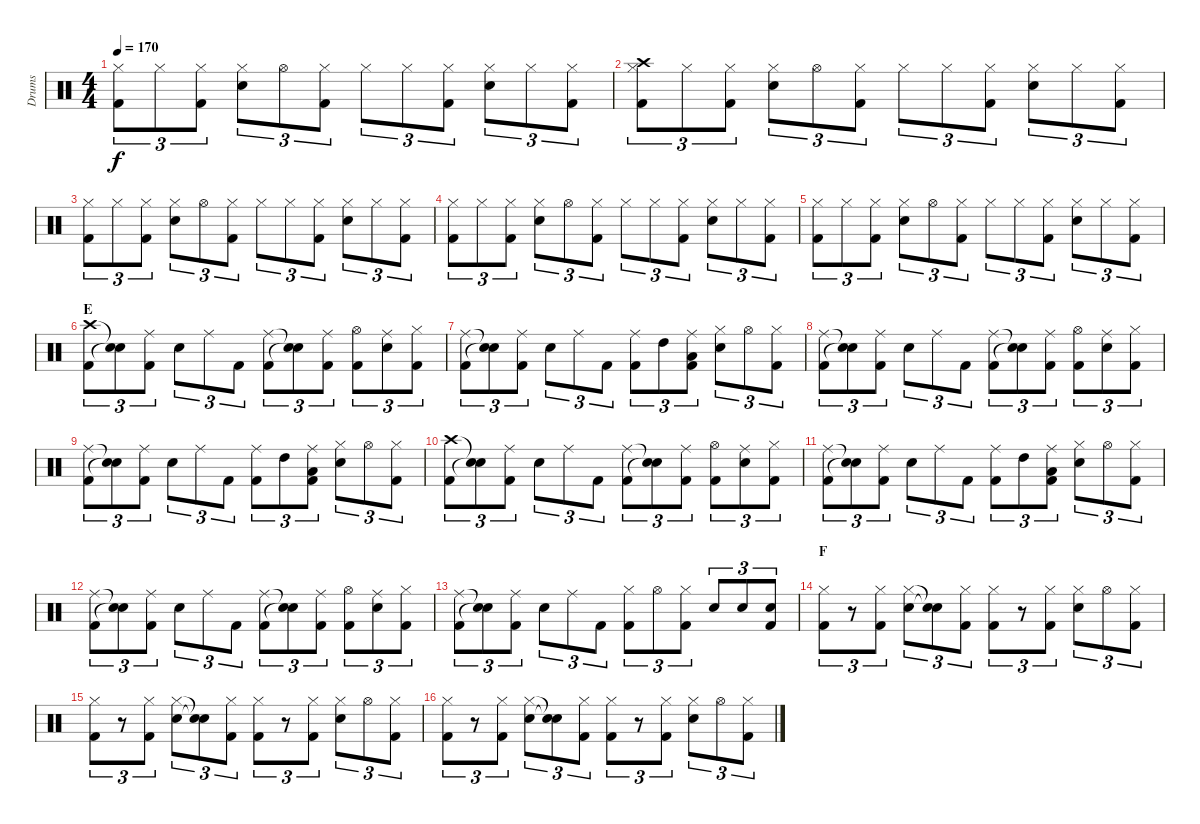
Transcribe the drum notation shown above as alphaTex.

\track ("Drums" "Drums") {instrument percussion}
\staff {score}
\articulation defaults
\ts (4 4)
\tempo 170
\clef neutral
\ks c
("Hi-Hat (closed)" "Kick (hit) 2").8{tu (3 2) dy f} "Hi-Hat (closed)".8{tu (3 2)} ("Hi-Hat (closed)" "Kick (hit) 2").8{tu (3 2)} ("Hi-Hat (closed)" "Snare (hit) 2").8{tu (3 2)} "Hi-Hat (open)".8{tu (3 2)} ("Hi-Hat (closed)" "Kick (hit) 2").8{tu (3 2)} "Hi-Hat (closed)".8{tu (3 2)} "Hi-Hat (closed)".8{tu (3 2)} ("Hi-Hat (closed)" "Kick (hit) 2").8{tu (3 2)} ("Hi-Hat (closed)" "Snare (hit) 2").8{tu (3 2)} "Hi-Hat (closed)".8{tu (3 2)} ("Hi-Hat (closed)" "Kick (hit) 2").8{tu (3 2)} |
("Crash high (hit)" "Hi-Hat (closed)" "Kick (hit) 2").8{tu (3 2)} "Hi-Hat (closed)".8{tu (3 2)} ("Hi-Hat (closed)" "Kick (hit) 2").8{tu (3 2)} ("Hi-Hat (closed)" "Snare (hit) 2").8{tu (3 2)} "Hi-Hat (open)".8{tu (3 2)} ("Hi-Hat (closed)" "Kick (hit) 2").8{tu (3 2)} "Hi-Hat (closed)".8{tu (3 2)} "Hi-Hat (closed)".8{tu (3 2)} ("Hi-Hat (closed)" "Kick (hit) 2").8{tu (3 2)} ("Hi-Hat (closed)" "Snare (hit) 2").8{tu (3 2)} "Hi-Hat (closed)".8{tu (3 2)} ("Hi-Hat (closed)" "Kick (hit) 2").8{tu (3 2)} |
("Hi-Hat (closed)" "Kick (hit) 2").8{tu (3 2)} "Hi-Hat (closed)".8{tu (3 2)} ("Hi-Hat (closed)" "Kick (hit) 2").8{tu (3 2)} ("Hi-Hat (closed)" "Snare (hit) 2").8{tu (3 2)} "Hi-Hat (open)".8{tu (3 2)} ("Hi-Hat (closed)" "Kick (hit) 2").8{tu (3 2)} "Hi-Hat (closed)".8{tu (3 2)} "Hi-Hat (closed)".8{tu (3 2)} ("Hi-Hat (closed)" "Kick (hit) 2").8{tu (3 2)} ("Hi-Hat (closed)" "Snare (hit) 2").8{tu (3 2)} "Hi-Hat (closed)".8{tu (3 2)} ("Hi-Hat (closed)" "Kick (hit) 2").8{tu (3 2)} |
("Hi-Hat (closed)" "Kick (hit) 2").8{tu (3 2)} "Hi-Hat (closed)".8{tu (3 2)} ("Hi-Hat (closed)" "Kick (hit) 2").8{tu (3 2)} ("Hi-Hat (closed)" "Snare (hit) 2").8{tu (3 2)} "Hi-Hat (open)".8{tu (3 2)} ("Hi-Hat (closed)" "Kick (hit) 2").8{tu (3 2)} "Hi-Hat (closed)".8{tu (3 2)} "Hi-Hat (closed)".8{tu (3 2)} ("Hi-Hat (closed)" "Kick (hit) 2").8{tu (3 2)} ("Hi-Hat (closed)" "Snare (hit) 2").8{tu (3 2)} "Hi-Hat (closed)".8{tu (3 2)} ("Hi-Hat (closed)" "Kick (hit) 2").8{tu (3 2)} |
("Hi-Hat (closed)" "Kick (hit) 2").8{tu (3 2)} "Hi-Hat (closed)".8{tu (3 2)} ("Hi-Hat (closed)" "Kick (hit) 2").8{tu (3 2)} ("Hi-Hat (closed)" "Snare (hit) 2").8{tu (3 2)} "Hi-Hat (open)".8{tu (3 2)} ("Hi-Hat (closed)" "Kick (hit) 2").8{tu (3 2)} "Hi-Hat (closed)".8{tu (3 2)} "Hi-Hat (closed)".8{tu (3 2)} ("Hi-Hat (closed)" "Kick (hit) 2").8{tu (3 2)} ("Hi-Hat (closed)" "Snare (hit) 2").8{tu (3 2)} "Hi-Hat (closed)".8{tu (3 2)} ("Hi-Hat (closed)" "Kick (hit) 2").8{tu (3 2)} |
\section ("" "E")
("Crash high (hit)" "Kick (hit) 2").8{tu (3 2)} ("Snare (hit)"{t} "Snare (hit)"{t}).8{tu (3 2)} ("Ride (middle)" "Kick (hit) 2").8{tu (3 2)} "Snare (hit) 2".8{tu (3 2)} "Ride (middle)".8{tu (3 2)} "Kick (hit) 2".8{tu (3 2)} ("Ride (middle)" "Kick (hit) 2").8{tu (3 2)} ("Snare (hit)"{t} "Snare (hit)"{t}).8{tu (3 2)} ("Ride (middle)" "Kick (hit) 2").8{tu (3 2)} ("Hi-Hat (open)" "Kick (hit) 2").8{tu (3 2)} ("Ride (middle)" "Snare (hit) 2").8{tu (3 2)} ("Hi-Hat (closed)" "Kick (hit) 2").8{tu (3 2)} |
("Ride (middle)" "Kick (hit) 2").8{tu (3 2)} ("Snare (hit)"{t} "Snare (hit)"{t}).8{tu (3 2)} ("Ride (middle)" "Kick (hit) 2").8{tu (3 2)} "Snare (hit) 2".8{tu (3 2)} "Ride (middle)".8{tu (3 2)} "Kick (hit) 2".8{tu (3 2)} ("Ride (middle)" "Kick (hit) 2").8{tu (3 2)} "High Tom (hit)".8{tu (3 2)} ("Ride (middle)" "Low Tom (hit)" "Kick (hit) 2").8{tu (3 2)} ("Hi-Hat (closed)" "Snare (hit) 2").8{tu (3 2)} "Hi-Hat (open)".8{tu (3 2)} ("Hi-Hat (closed)" "Kick (hit) 2").8{tu (3 2)} |
("Ride (middle)" "Kick (hit) 2").8{tu (3 2)} ("Snare (hit)"{t} "Snare (hit)"{t}).8{tu (3 2)} ("Ride (middle)" "Kick (hit) 2").8{tu (3 2)} "Snare (hit) 2".8{tu (3 2)} "Ride (middle)".8{tu (3 2)} "Kick (hit) 2".8{tu (3 2)} ("Ride (middle)" "Kick (hit) 2").8{tu (3 2)} ("Snare (hit)"{t} "Snare (hit)"{t}).8{tu (3 2)} ("Ride (middle)" "Kick (hit) 2").8{tu (3 2)} ("Hi-Hat (open)" "Kick (hit) 2").8{tu (3 2)} ("Ride (middle)" "Snare (hit) 2").8{tu (3 2)} ("Hi-Hat (closed)" "Kick (hit) 2").8{tu (3 2)} |
("Ride (middle)" "Kick (hit) 2").8{tu (3 2)} ("Snare (hit)"{t} "Snare (hit)"{t}).8{tu (3 2)} ("Ride (middle)" "Kick (hit) 2").8{tu (3 2)} "Snare (hit) 2".8{tu (3 2)} "Ride (middle)".8{tu (3 2)} "Kick (hit) 2".8{tu (3 2)} ("Ride (middle)" "Kick (hit) 2").8{tu (3 2)} "High Tom (hit)".8{tu (3 2)} ("Ride (middle)" "Low Tom (hit)" "Kick (hit) 2").8{tu (3 2)} ("Hi-Hat (closed)" "Snare (hit) 2").8{tu (3 2)} "Hi-Hat (open)".8{tu (3 2)} ("Hi-Hat (closed)" "Kick (hit) 2").8{tu (3 2)} |
("Crash high (hit)" "Kick (hit) 2").8{tu (3 2)} ("Snare (hit)"{t} "Snare (hit)"{t}).8{tu (3 2)} ("Ride (middle)" "Kick (hit) 2").8{tu (3 2)} "Snare (hit) 2".8{tu (3 2)} "Ride (middle)".8{tu (3 2)} "Kick (hit) 2".8{tu (3 2)} ("Ride (middle)" "Kick (hit) 2").8{tu (3 2)} ("Snare (hit)"{t} "Snare (hit)"{t}).8{tu (3 2)} ("Ride (middle)" "Kick (hit) 2").8{tu (3 2)} ("Hi-Hat (open)" "Kick (hit) 2").8{tu (3 2)} ("Ride (middle)" "Snare (hit) 2").8{tu (3 2)} ("Hi-Hat (closed)" "Kick (hit) 2").8{tu (3 2)} |
("Ride (middle)" "Kick (hit) 2").8{tu (3 2)} ("Snare (hit)"{t} "Snare (hit)"{t}).8{tu (3 2)} ("Ride (middle)" "Kick (hit) 2").8{tu (3 2)} "Snare (hit) 2".8{tu (3 2)} "Ride (middle)".8{tu (3 2)} "Kick (hit) 2".8{tu (3 2)} ("Ride (middle)" "Kick (hit) 2").8{tu (3 2)} "High Tom (hit)".8{tu (3 2)} ("Ride (middle)" "Low Tom (hit)" "Kick (hit) 2").8{tu (3 2)} ("Hi-Hat (closed)" "Snare (hit) 2").8{tu (3 2)} "Hi-Hat (open)".8{tu (3 2)} ("Hi-Hat (closed)" "Kick (hit) 2").8{tu (3 2)} |
("Ride (middle)" "Kick (hit) 2").8{tu (3 2)} ("Snare (hit)"{t} "Snare (hit)"{t}).8{tu (3 2)} ("Ride (middle)" "Kick (hit) 2").8{tu (3 2)} "Snare (hit) 2".8{tu (3 2)} "Ride (middle)".8{tu (3 2)} "Kick (hit) 2".8{tu (3 2)} ("Ride (middle)" "Kick (hit) 2").8{tu (3 2)} ("Snare (hit)"{t} "Snare (hit)"{t}).8{tu (3 2)} ("Ride (middle)" "Kick (hit) 2").8{tu (3 2)} ("Hi-Hat (open)" "Kick (hit) 2").8{tu (3 2)} ("Ride (middle)" "Snare (hit) 2").8{tu (3 2)} ("Hi-Hat (closed)" "Kick (hit) 2").8{tu (3 2)} |
("Ride (middle)" "Kick (hit) 2").8{tu (3 2)} ("Snare (hit)"{t} "Snare (hit)"{t}).8{tu (3 2)} ("Ride (middle)" "Kick (hit) 2").8{tu (3 2)} "Snare (hit) 2".8{tu (3 2)} "Ride (middle)".8{tu (3 2)} "Kick (hit) 2".8{tu (3 2)} ("Hi-Hat (closed)" "Kick (hit) 2").8{tu (3 2)} "Hi-Hat (open)".8{tu (3 2)} ("Hi-Hat (closed)" "Kick (hit) 2").8{tu (3 2)} "Snare (hit) 2".8{tu (3 2)} "Snare (hit) 2".8{tu (3 2)} ("Snare (hit) 2" "Kick (hit) 2").8{tu (3 2)} |
\section ("" "F")
("Hi-Hat (closed)" "Kick (hit) 2").8{tu (3 2)} r.8{tu (3 2)} ("Hi-Hat (closed)" "Kick (hit) 2").8{tu (3 2)} ("Hi-Hat (closed)" "Snare (hit) 2").8{tu (3 2)} ("Snare (hit)"{t} "Snare (hit)"{t}).8{tu (3 2)} ("Hi-Hat (closed)" "Kick (hit) 2").8{tu (3 2)} ("Hi-Hat (closed)" "Kick (hit) 2").8{tu (3 2)} r.8{tu (3 2)} ("Hi-Hat (closed)" "Kick (hit) 2").8{tu (3 2)} ("Hi-Hat (closed)" "Snare (hit) 2").8{tu (3 2)} "Hi-Hat (open)".8{tu (3 2)} ("Hi-Hat (closed)" "Kick (hit) 2").8{tu (3 2)} |
("Hi-Hat (closed)" "Kick (hit) 2").8{tu (3 2)} r.8{tu (3 2)} ("Hi-Hat (closed)" "Kick (hit) 2").8{tu (3 2)} ("Hi-Hat (closed)" "Snare (hit) 2").8{tu (3 2)} ("Snare (hit)"{t} "Snare (hit)"{t}).8{tu (3 2)} ("Hi-Hat (closed)" "Kick (hit) 2").8{tu (3 2)} ("Hi-Hat (closed)" "Kick (hit) 2").8{tu (3 2)} r.8{tu (3 2)} ("Hi-Hat (closed)" "Kick (hit) 2").8{tu (3 2)} ("Hi-Hat (closed)" "Snare (hit) 2").8{tu (3 2)} "Hi-Hat (open)".8{tu (3 2)} ("Hi-Hat (closed)" "Kick (hit) 2").8{tu (3 2)} |
("Hi-Hat (closed)" "Kick (hit) 2").8{tu (3 2)} r.8{tu (3 2)} ("Hi-Hat (closed)" "Kick (hit) 2").8{tu (3 2)} ("Hi-Hat (closed)" "Snare (hit) 2").8{tu (3 2)} ("Snare (hit)"{t} "Snare (hit)"{t}).8{tu (3 2)} ("Hi-Hat (closed)" "Kick (hit) 2").8{tu (3 2)} ("Hi-Hat (closed)" "Kick (hit) 2").8{tu (3 2)} r.8{tu (3 2)} ("Hi-Hat (closed)" "Kick (hit) 2").8{tu (3 2)} ("Hi-Hat (closed)" "Snare (hit) 2").8{tu (3 2)} "Hi-Hat (open)".8{tu (3 2)} ("Hi-Hat (closed)" "Kick (hit) 2").8{tu (3 2)}
